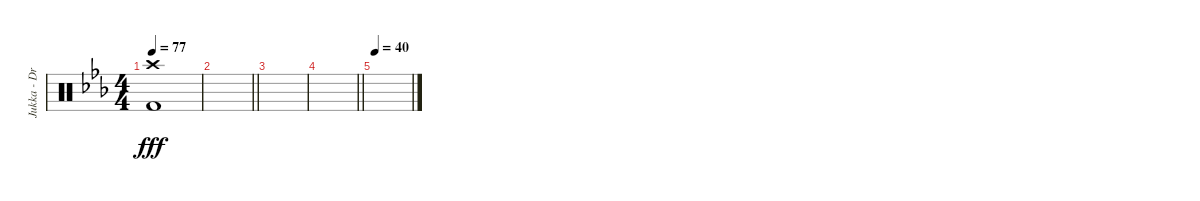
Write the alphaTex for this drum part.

\track ("Jukka - Drums" "Jukka - Dr") {instrument percussion}
\staff {score}
\articulation defaults
\ts (4 4)
\tempo 77
\clef neutral
\ks cminor
("Crash high (hit)" "Kick (hit) 2").1{dy fff} |
\barLineRight lightlight
|
|
\barLineRight lightlight
|
\tempo 40
